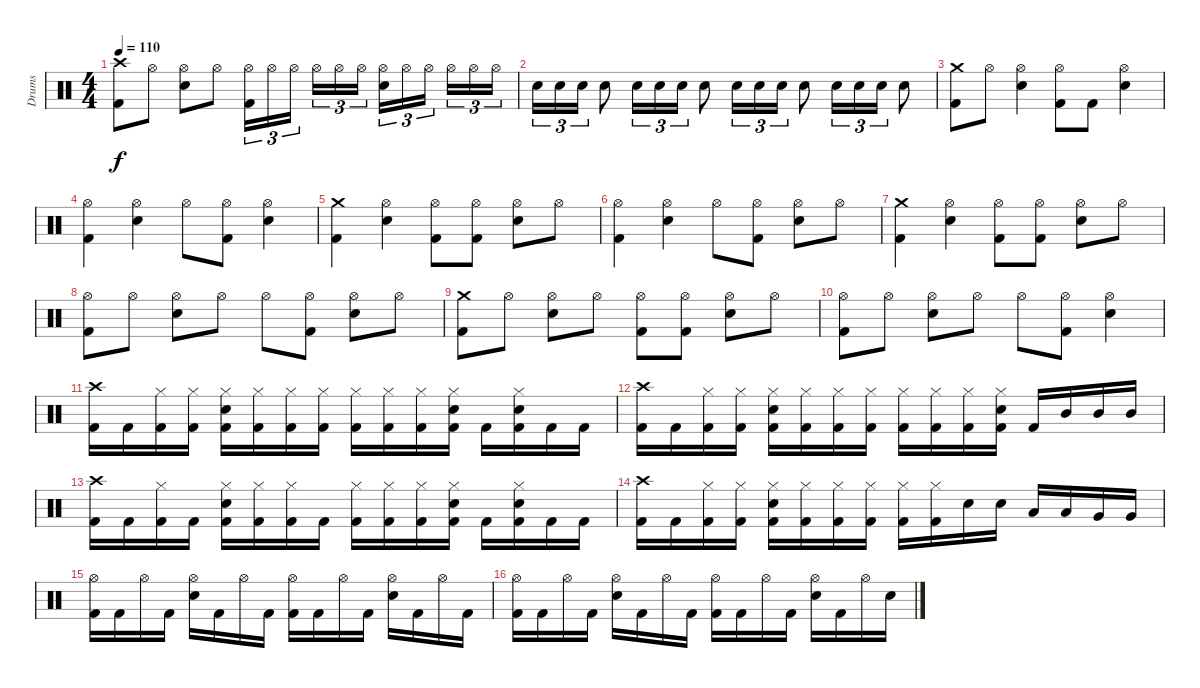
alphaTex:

\track ("Drums" "Drums") {instrument percussion}
\staff {score}
\articulation defaults
\ts (4 4)
\tempo 110
\clef neutral
\ks c
("Crash high (hit)" "Kick (hit) 2").8{dy f} "Hi-Hat (open)".8 ("Hi-Hat (open)" "Electric Snare (hit)").8 "Hi-Hat (open)".8 ("Hi-Hat (open)" "Kick (hit) 2").16{tu (3 2)} "Hi-Hat (open)".16{tu (3 2)} "Hi-Hat (open)".16{tu (3 2)} "Hi-Hat (open)".16{tu (3 2)} "Hi-Hat (open)".16{tu (3 2)} "Hi-Hat (open)".16{tu (3 2)} ("Hi-Hat (open)" "Electric Snare (hit)").16{tu (3 2)} "Hi-Hat (open)".16{tu (3 2)} "Hi-Hat (open)".16{tu (3 2)} "Hi-Hat (open)".16{tu (3 2)} "Hi-Hat (open)".16{tu (3 2)} "Hi-Hat (open)".16{tu (3 2)} |
"Electric Snare (hit)".16{tu (3 2)} "Electric Snare (hit)".16{tu (3 2)} "Electric Snare (hit)".16{tu (3 2)} "Electric Snare (hit)".8 "Electric Snare (hit)".16{tu (3 2)} "Electric Snare (hit)".16{tu (3 2)} "Electric Snare (hit)".16{tu (3 2)} "Electric Snare (hit)".8 "Electric Snare (hit)".16{tu (3 2)} "Electric Snare (hit)".16{tu (3 2)} "Electric Snare (hit)".16{tu (3 2)} "Electric Snare (hit)".8 "Electric Snare (hit)".16{tu (3 2)} "Electric Snare (hit)".16{tu (3 2)} "Electric Snare (hit)".16{tu (3 2)} "Electric Snare (hit)".8 |
("Crash medium (hit)" "Kick (hit) 2").8 "Hi-Hat (open)".8 ("Hi-Hat (open)" "Electric Snare (hit)").4 ("Hi-Hat (open)" "Kick (hit) 2").8 "Kick (hit) 2".8 ("Hi-Hat (open)" "Electric Snare (hit)").4 |
("Hi-Hat (open)" "Kick (hit) 2").4 ("Hi-Hat (open)" "Electric Snare (hit)").4 "Hi-Hat (open)".8 ("Hi-Hat (open)" "Kick (hit) 2").8 ("Hi-Hat (open)" "Electric Snare (hit)").4 |
("Crash medium (hit)" "Kick (hit) 2").4 ("Hi-Hat (open)" "Electric Snare (hit)").4 ("Hi-Hat (open)" "Kick (hit) 2").8 ("Hi-Hat (open)" "Kick (hit) 2").8 ("Hi-Hat (open)" "Electric Snare (hit)").8 "Hi-Hat (open)".8 |
("Hi-Hat (open)" "Kick (hit) 2").4 ("Hi-Hat (open)" "Electric Snare (hit)").4 "Hi-Hat (open)".8 ("Hi-Hat (open)" "Kick (hit) 2").8 ("Hi-Hat (open)" "Electric Snare (hit)").8 "Hi-Hat (open)".8 |
("Crash medium (hit)" "Kick (hit) 2").4 ("Hi-Hat (open)" "Electric Snare (hit)").4 ("Hi-Hat (open)" "Kick (hit) 2").8 ("Hi-Hat (open)" "Kick (hit) 2").8 ("Hi-Hat (open)" "Electric Snare (hit)").8 "Hi-Hat (open)".8 |
("Hi-Hat (open)" "Kick (hit) 2").8 "Hi-Hat (open)".8 ("Hi-Hat (open)" "Electric Snare (hit)").8 "Hi-Hat (open)".8 "Hi-Hat (open)".8 ("Hi-Hat (open)" "Kick (hit) 2").8 ("Hi-Hat (open)" "Electric Snare (hit)").8 "Hi-Hat (open)".8 |
("Crash medium (hit)" "Kick (hit) 2").8 "Hi-Hat (open)".8 ("Hi-Hat (open)" "Electric Snare (hit)").8 "Hi-Hat (open)".8 ("Hi-Hat (open)" "Kick (hit) 2").8 ("Hi-Hat (open)" "Kick (hit) 2").8 ("Hi-Hat (open)" "Electric Snare (hit)").8 "Hi-Hat (open)".8 |
("Hi-Hat (open)" "Kick (hit) 2").8 "Hi-Hat (open)".8 ("Hi-Hat (open)" "Electric Snare (hit)").8 "Hi-Hat (open)".8 "Hi-Hat (open)".8 ("Hi-Hat (open)" "Kick (hit) 2").8 ("Hi-Hat (open)" "Electric Snare (hit)").4 |
("Crash high (hit)" "Kick (hit) 2").16 "Kick (hit) 2".16 ("Hi-Hat (closed)" "Kick (hit) 2").16 ("Hi-Hat (closed)" "Kick (hit) 2").16 ("Hi-Hat (closed)" "Electric Snare (hit)" "Kick (hit) 2").16 ("Hi-Hat (closed)" "Kick (hit) 2").16 ("Hi-Hat (closed)" "Kick (hit) 2").16 ("Hi-Hat (closed)" "Kick (hit) 2").16 ("Hi-Hat (closed)" "Kick (hit) 2").16 ("Hi-Hat (closed)" "Kick (hit) 2").16 ("Hi-Hat (closed)" "Kick (hit) 2").16 ("Hi-Hat (closed)" "Electric Snare (hit)" "Kick (hit) 2").16 "Kick (hit) 2".16 ("Hi-Hat (closed)" "Electric Snare (hit)" "Kick (hit) 2").16 "Kick (hit) 2".16 "Kick (hit) 2".16 |
("Crash high (hit)" "Kick (hit) 2").16 "Kick (hit) 2".16 ("Hi-Hat (closed)" "Kick (hit) 2").16 ("Hi-Hat (closed)" "Kick (hit) 2").16 ("Hi-Hat (closed)" "Electric Snare (hit)" "Kick (hit) 2").16 ("Hi-Hat (closed)" "Kick (hit) 2").16 ("Hi-Hat (closed)" "Kick (hit) 2").16 ("Hi-Hat (closed)" "Kick (hit) 2").16 ("Hi-Hat (closed)" "Kick (hit) 2").16 ("Hi-Hat (closed)" "Kick (hit) 2").16 ("Hi-Hat (closed)" "Kick (hit) 2").16 ("Hi-Hat (closed)" "Electric Snare (hit)" "Kick (hit) 2").16 "Kick (hit) 2".16 "Mid Tom (hit)".16 "Mid Tom (hit)".16 "Mid Tom (hit)".16 |
("Crash high (hit)" "Kick (hit) 2").16 "Kick (hit) 2".16 ("Hi-Hat (closed)" "Kick (hit) 2").16 "Kick (hit) 2".16 ("Hi-Hat (closed)" "Electric Snare (hit)" "Kick (hit) 2").16 ("Hi-Hat (closed)" "Kick (hit) 2").16 ("Hi-Hat (closed)" "Kick (hit) 2").16 "Kick (hit) 2".16 ("Hi-Hat (closed)" "Kick (hit) 2").16 ("Hi-Hat (closed)" "Kick (hit) 2").16 ("Hi-Hat (closed)" "Kick (hit) 2").16 ("Hi-Hat (closed)" "Electric Snare (hit)" "Kick (hit) 2").16 "Kick (hit) 2".16 ("Hi-Hat (closed)" "Electric Snare (hit)" "Kick (hit) 2").16 "Kick (hit) 2".16 "Kick (hit) 2".16 |
("Crash high (hit)" "Kick (hit) 2").16 "Kick (hit) 2".16 ("Hi-Hat (closed)" "Kick (hit) 2").16 ("Hi-Hat (closed)" "Kick (hit) 2").16 ("Hi-Hat (closed)" "Electric Snare (hit)" "Kick (hit) 2").16 ("Hi-Hat (closed)" "Kick (hit) 2").16 ("Hi-Hat (closed)" "Kick (hit) 2").16 ("Hi-Hat (closed)" "Kick (hit) 2").16 ("Hi-Hat (closed)" "Kick (hit) 2").16 ("Hi-Hat (closed)" "Kick (hit) 2").16 "Electric Snare (hit)".16 "Electric Snare (hit)".16 "Low Tom (hit)".16 "Low Tom (hit)".16 "Very Low Tom (hit)".16 "Very Low Tom (hit)".16 |
("Hi-Hat (open)" "Kick (hit) 2").16 "Kick (hit) 2".16 "Hi-Hat (open)".16 "Kick (hit) 2".16 ("Hi-Hat (open)" "Electric Snare (hit)").16 "Kick (hit) 2".16 "Hi-Hat (open)".16 "Kick (hit) 2".16 ("Hi-Hat (open)" "Kick (hit) 2").16 "Kick (hit) 2".16 "Hi-Hat (open)".16 "Kick (hit) 2".16 ("Hi-Hat (open)" "Electric Snare (hit)").16 "Kick (hit) 2".16 "Hi-Hat (open)".16 "Kick (hit) 2".16 |
("Hi-Hat (open)" "Kick (hit) 2").16 "Kick (hit) 2".16 "Hi-Hat (open)".16 "Kick (hit) 2".16 ("Hi-Hat (open)" "Electric Snare (hit)").16 "Kick (hit) 2".16 "Hi-Hat (open)".16 "Kick (hit) 2".16 ("Hi-Hat (open)" "Kick (hit) 2").16 "Kick (hit) 2".16 "Hi-Hat (open)".16 "Kick (hit) 2".16 ("Hi-Hat (open)" "Electric Snare (hit)").16 "Kick (hit) 2".16 "Hi-Hat (open)".16 "Electric Snare (hit)".16
